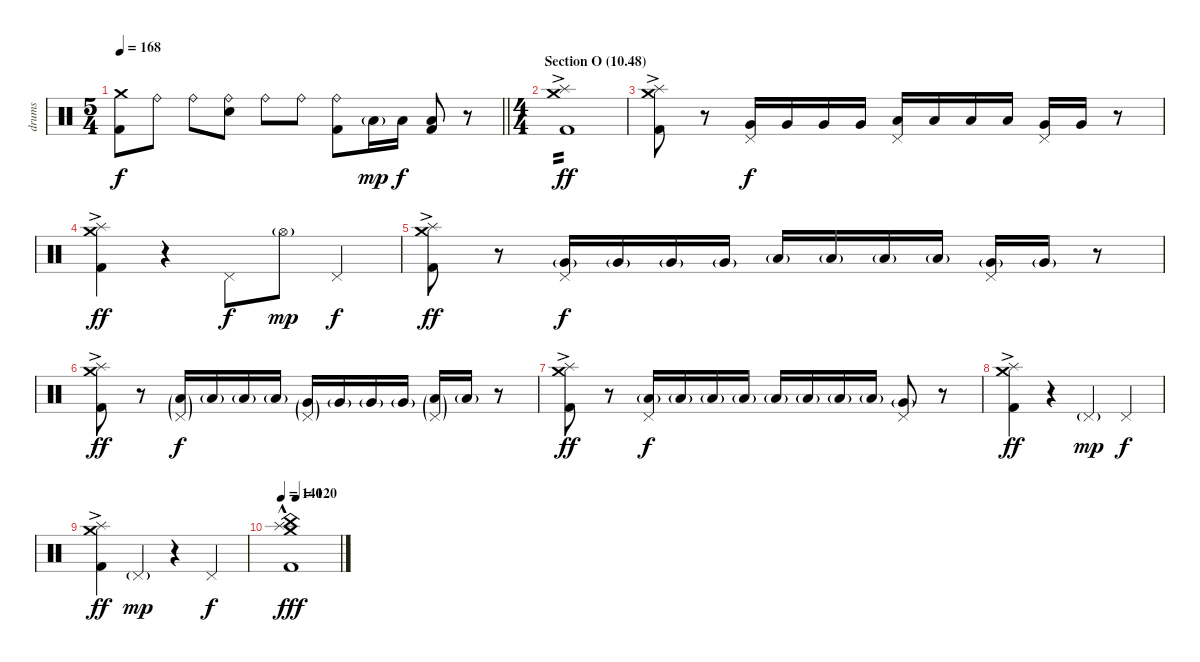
\track ("drums" "drums") {instrument percussion}
\staff {score}
\articulation defaults
\ts (5 4)
\tempo 168
\clef neutral
\barLineRight lightlight
\ks c
("Crash medium (hit)" "Kick (hit) 2").8{dy f} "Ride (bell)".8 "Ride (bell)".8 ("Ride (bell)" "Electric Snare (hit)").8 "Ride (bell)".8 "Ride (bell)".8 ("Ride (bell)" "Kick (hit) 2").8 "Low Tom (hit)"{g}.16{dy mp} "Low Tom (hit)".16{dy f} ("Low Tom (hit)" "Kick (hit) 2").8 r.8 |
\ts (4 4)
\section ("" "Section O (10.48)")
("Crash medium (hit)" "Splash (hit)" "Kick (hit) 2"{ac}).1{tp 2 dy ff} |
("Crash medium (hit)"{ac} "Splash (hit)"{ac} "Kick (hit) 2"{ac}).8 r.8 ("Pedal Hi-Hat (hit)" "Very Low Tom (hit)").16{dy f} "Very Low Tom (hit)".16 "Very Low Tom (hit)".16 "Very Low Tom (hit)".16 ("Pedal Hi-Hat (hit)" "Low Tom (hit)").16 "Low Tom (hit)".16 "Low Tom (hit)".16 "Low Tom (hit)".16 ("Pedal Hi-Hat (hit)" "Very Low Tom (hit)").16 "Very Low Tom (hit)".16 r.8 |
("Crash medium (hit)"{ac} "Splash (hit)"{ac} "Kick (hit) 2"{ac}).4{dy ff} r.4 "Pedal Hi-Hat (hit)".8{dy f} "Hi-Hat (open)"{g}.8{dy mp} "Pedal Hi-Hat (hit)".4{dy f} |
("Crash medium (hit)"{ac} "Splash (hit)"{ac} "Kick (hit) 2"{ac}).8{dy ff} r.8 ("Pedal Hi-Hat (hit)" "Very Low Tom (hit)"{g}).16{dy f} "Very Low Tom (hit)"{g}.16 "Very Low Tom (hit)"{g}.16 "Very Low Tom (hit)"{g}.16 "Low Tom (hit)"{g}.16 "Low Tom (hit)"{g}.16 "Low Tom (hit)"{g}.16 "Low Tom (hit)"{g}.16 ("Pedal Hi-Hat (hit)" "Very Low Tom (hit)"{g}).16 "Very Low Tom (hit)"{g}.16 r.8 |
("Crash medium (hit)"{ac} "Splash (hit)"{ac} "Kick (hit) 2"{ac}).8{dy ff} r.8 ("Pedal Hi-Hat (hit)"{g} "Low Floor Tom (hit)"{g}).16{dy f} "Low Floor Tom (hit)"{g}.16 "Low Floor Tom (hit)"{g}.16 "Low Floor Tom (hit)"{g}.16 ("Pedal Hi-Hat (hit)"{g} "Very Low Tom (hit)"{g}).16 "Very Low Tom (hit)"{g}.16 "Very Low Tom (hit)"{g}.16 "Very Low Tom (hit)"{g}.16 ("Pedal Hi-Hat (hit)"{g} "Low Floor Tom (hit)"{g}).16 "Low Floor Tom (hit)"{g}.16 r.8 |
("Crash medium (hit)"{ac} "Splash (hit)"{ac} "Kick (hit) 2"{ac}).8{dy ff} r.8 ("Pedal Hi-Hat (hit)" "Low Floor Tom (hit)"{g}).16{dy f} "Low Floor Tom (hit)"{g}.16 "Low Floor Tom (hit)"{g}.16 "Low Floor Tom (hit)"{g}.16 "Low Floor Tom (hit)"{g}.16 "Low Floor Tom (hit)"{g}.16 "Low Floor Tom (hit)"{g}.16 "Low Floor Tom (hit)"{g}.16 ("Pedal Hi-Hat (hit)" "Very Low Tom (hit)"{g}).8 r.8 |
("Crash medium (hit)"{ac} "Splash (hit)"{ac} "Kick (hit) 2"{ac}).4{dy ff} r.4 "Pedal Hi-Hat (hit)"{g}.4{dy mp} "Pedal Hi-Hat (hit)".4{dy f} |
("Crash medium (hit)"{ac} "Splash (hit)"{ac} "Kick (hit) 2"{ac}).4{dy ff} "Pedal Hi-Hat (hit)"{g}.4{dy mp} r.4 "Pedal Hi-Hat (hit)".4{dy f} |
\tempo 140
\tempo (120 0.25)
("Crash medium (hit)"{hac} "China (hit)"{hac} "Splash (hit)"{hac} "Kick (hit) 2"{hac}).1{dy fff}
